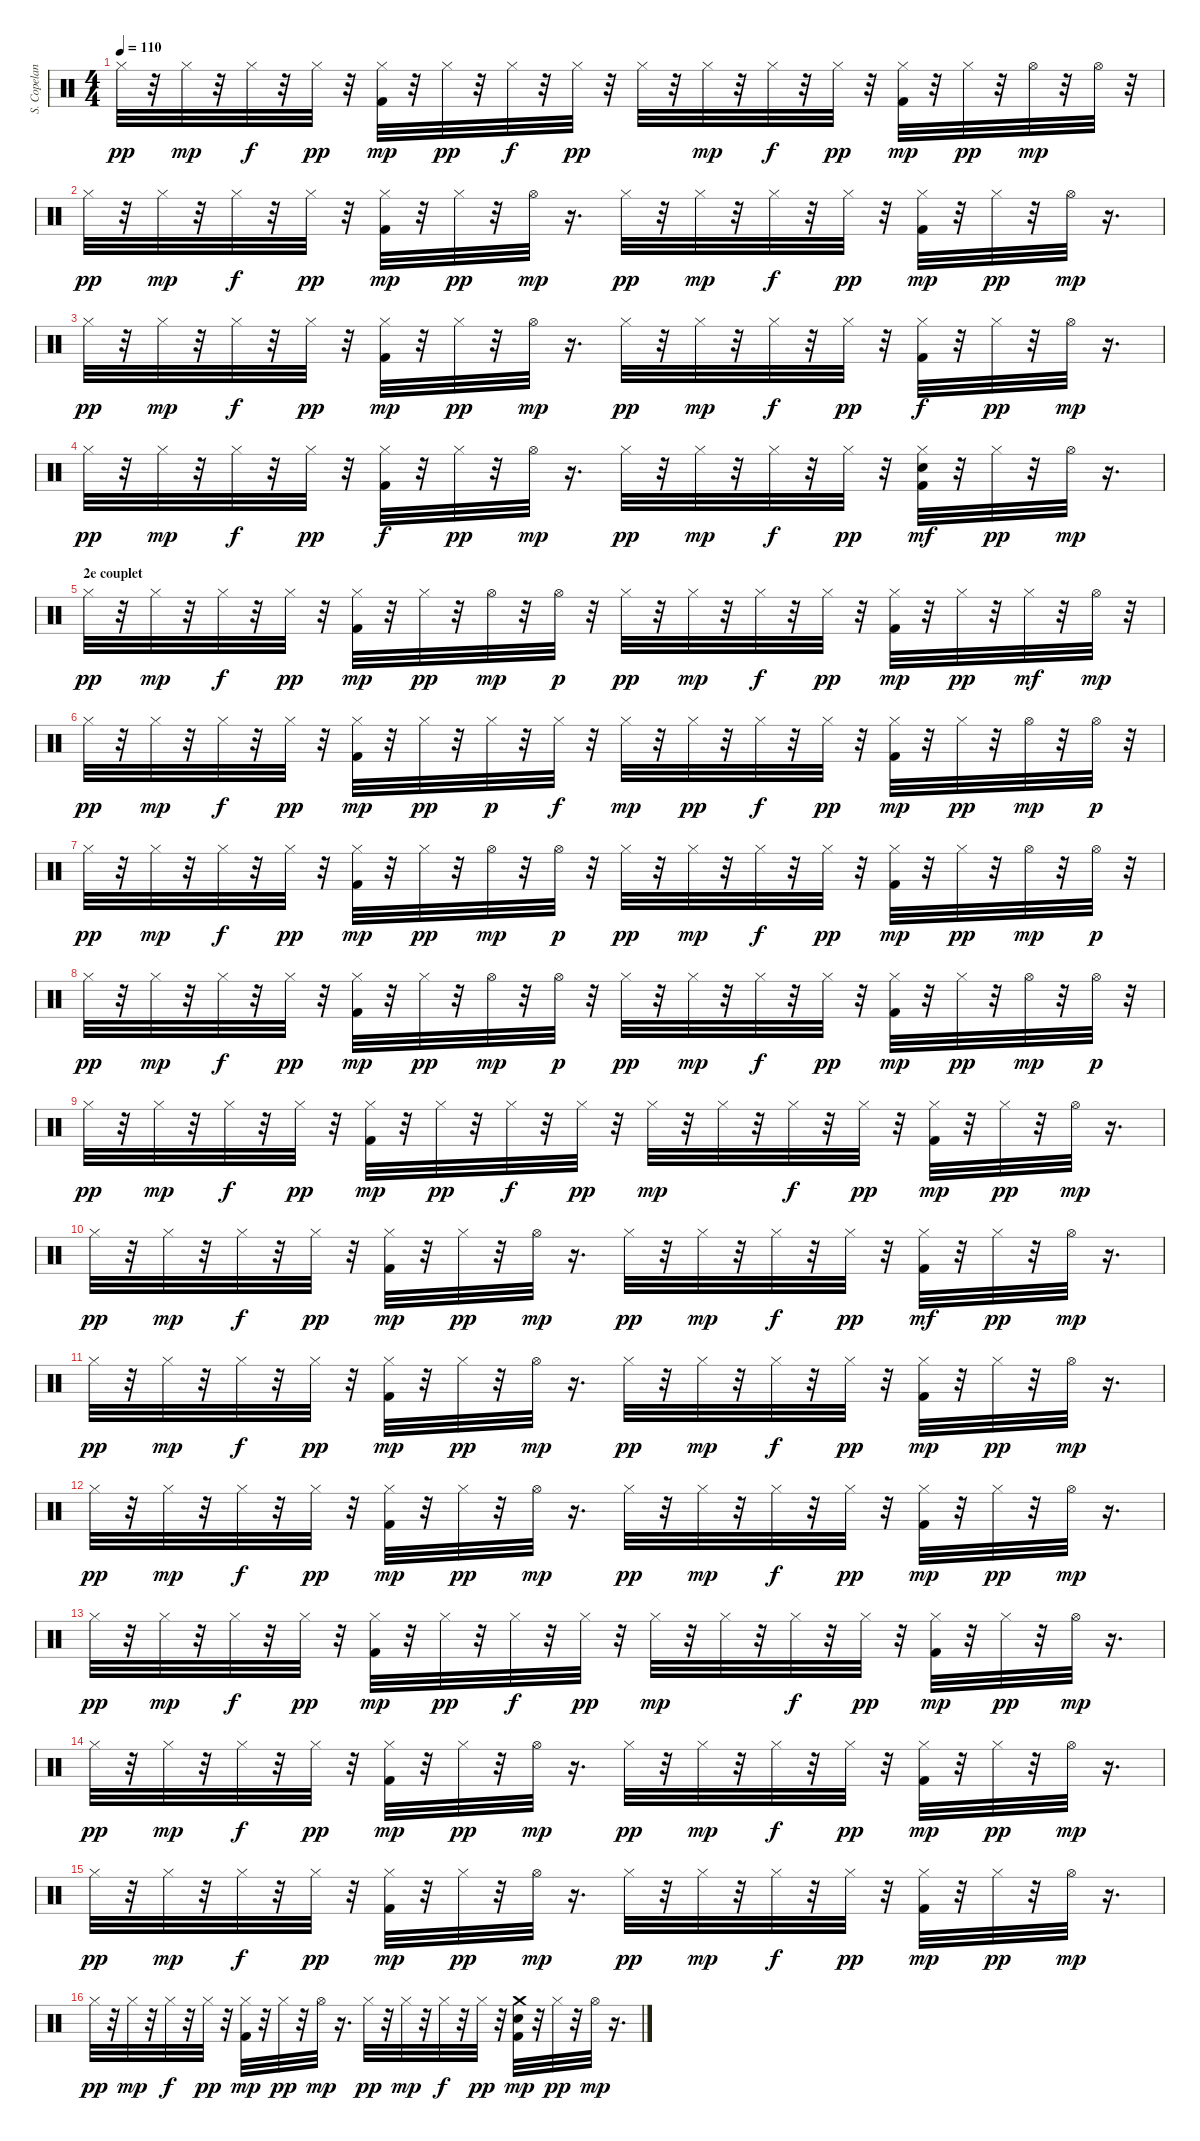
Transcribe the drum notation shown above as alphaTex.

\track ("S. Copeland" "S. Copelan") {instrument percussion}
\staff {score}
\articulation defaults
\ts (4 4)
\tempo 110
\clef neutral
\ks c "Hi-Hat (closed)".32{dy pp}
r.32 "Hi-Hat (closed)".32{dy mp} r.32 "Hi-Hat (closed)".32{dy f} r.32 "Hi-Hat (closed)".32{dy pp} r.32 ("Kick (hit) 2" "Hi-Hat (closed)").32{dy mp} r.32 "Hi-Hat (closed)".32{dy pp} r.32 "Hi-Hat (closed)".32{dy f} r.32 "Hi-Hat (closed)".32{dy pp} r.32 "Hi-Hat (closed)".32 r.32 "Hi-Hat (closed)".32{dy mp} r.32 "Hi-Hat (closed)".32{dy f} r.32 "Hi-Hat (closed)".32{dy pp} r.32 ("Kick (hit) 2" "Hi-Hat (closed)").32{dy mp} r.32 "Hi-Hat (closed)".32{dy pp} r.32 "Hi-Hat (open)".32{dy mp} r.32 "Hi-Hat (open)".32 r.32 |
"Hi-Hat (closed)".32{dy pp} r.32 "Hi-Hat (closed)".32{dy mp} r.32 "Hi-Hat (closed)".32{dy f} r.32 "Hi-Hat (closed)".32{dy pp} r.32 ("Kick (hit) 2" "Hi-Hat (closed)").32{dy mp} r.32 "Hi-Hat (closed)".32{dy pp} r.32 "Hi-Hat (open)".32{dy mp} r.16{d} "Hi-Hat (closed)".32{dy pp} r.32 "Hi-Hat (closed)".32{dy mp} r.32 "Hi-Hat (closed)".32{dy f} r.32 "Hi-Hat (closed)".32{dy pp} r.32 ("Kick (hit) 2" "Hi-Hat (closed)").32{dy mp} r.32 "Hi-Hat (closed)".32{dy pp} r.32 "Hi-Hat (open)".32{dy mp} r.16{d} |
"Hi-Hat (closed)".32{dy pp} r.32 "Hi-Hat (closed)".32{dy mp} r.32 "Hi-Hat (closed)".32{dy f} r.32 "Hi-Hat (closed)".32{dy pp} r.32 ("Kick (hit) 2" "Hi-Hat (closed)").32{dy mp} r.32 "Hi-Hat (closed)".32{dy pp} r.32 "Hi-Hat (open)".32{dy mp} r.16{d} "Hi-Hat (closed)".32{dy pp} r.32 "Hi-Hat (closed)".32{dy mp} r.32 "Hi-Hat (closed)".32{dy f} r.32 "Hi-Hat (closed)".32{dy pp} r.32 ("Kick (hit) 2" "Hi-Hat (closed)").32{dy f} r.32 "Hi-Hat (closed)".32{dy pp} r.32 "Hi-Hat (open)".32{dy mp} r.16{d} |
"Hi-Hat (closed)".32{dy pp} r.32 "Hi-Hat (closed)".32{dy mp} r.32 "Hi-Hat (closed)".32{dy f} r.32 "Hi-Hat (closed)".32{dy pp} r.32 ("Kick (hit) 2" "Hi-Hat (closed)").32{dy f} r.32 "Hi-Hat (closed)".32{dy pp} r.32 "Hi-Hat (open)".32{dy mp} r.16{d} "Hi-Hat (closed)".32{dy pp} r.32 "Hi-Hat (closed)".32{dy mp} r.32 "Hi-Hat (closed)".32{dy f} r.32 "Hi-Hat (closed)".32{dy pp} r.32 ("Kick (hit) 2" "Electric Snare (hit)" "Hi-Hat (closed)").32{dy mf} r.32 "Hi-Hat (closed)".32{dy pp} r.32 "Hi-Hat (open)".32{dy mp} r.16{d} |
\section ("" "2e couplet")
"Hi-Hat (closed)".32{dy pp} r.32 "Hi-Hat (closed)".32{dy mp} r.32 "Hi-Hat (closed)".32{dy f} r.32 "Hi-Hat (closed)".32{dy pp} r.32 ("Kick (hit) 2" "Hi-Hat (closed)").32{dy mp} r.32 "Hi-Hat (closed)".32{dy pp} r.32 "Hi-Hat (open)".32{dy mp} r.32 "Hi-Hat (open)".32{dy p} r.32 "Hi-Hat (closed)".32{dy pp} r.32 "Hi-Hat (closed)".32{dy mp} r.32 "Hi-Hat (closed)".32{dy f} r.32 "Hi-Hat (closed)".32{dy pp} r.32 ("Kick (hit) 2" "Hi-Hat (closed)").32{dy mp} r.32 "Hi-Hat (closed)".32{dy pp} r.32 "Hi-Hat (closed)".32{dy mf} r.32 "Hi-Hat (open)".32{dy mp} r.32 |
"Hi-Hat (closed)".32{dy pp} r.32 "Hi-Hat (closed)".32{dy mp} r.32 "Hi-Hat (closed)".32{dy f} r.32 "Hi-Hat (closed)".32{dy pp} r.32 ("Kick (hit) 2" "Hi-Hat (closed)").32{dy mp} r.32 "Hi-Hat (closed)".32{dy pp} r.32 "Hi-Hat (closed)".32{dy p} r.32 "Hi-Hat (closed)".32{dy f} r.32 "Hi-Hat (closed)".32{dy mp} r.32 "Hi-Hat (closed)".32{dy pp} r.32 "Hi-Hat (closed)".32{dy f} r.32 "Hi-Hat (closed)".32{dy pp} r.32 ("Kick (hit) 2" "Hi-Hat (closed)").32{dy mp} r.32 "Hi-Hat (closed)".32{dy pp} r.32 "Hi-Hat (open)".32{dy mp} r.32 "Hi-Hat (open)".32{dy p} r.32 |
"Hi-Hat (closed)".32{dy pp} r.32 "Hi-Hat (closed)".32{dy mp} r.32 "Hi-Hat (closed)".32{dy f} r.32 "Hi-Hat (closed)".32{dy pp} r.32 ("Kick (hit) 2" "Hi-Hat (closed)").32{dy mp} r.32 "Hi-Hat (closed)".32{dy pp} r.32 "Hi-Hat (open)".32{dy mp} r.32 "Hi-Hat (open)".32{dy p} r.32 "Hi-Hat (closed)".32{dy pp} r.32 "Hi-Hat (closed)".32{dy mp} r.32 "Hi-Hat (closed)".32{dy f} r.32 "Hi-Hat (closed)".32{dy pp} r.32 ("Kick (hit) 2" "Hi-Hat (closed)").32{dy mp} r.32 "Hi-Hat (closed)".32{dy pp} r.32 "Hi-Hat (open)".32{dy mp} r.32 "Hi-Hat (open)".32{dy p} r.32 |
"Hi-Hat (closed)".32{dy pp} r.32 "Hi-Hat (closed)".32{dy mp} r.32 "Hi-Hat (closed)".32{dy f} r.32 "Hi-Hat (closed)".32{dy pp} r.32 ("Kick (hit) 2" "Hi-Hat (closed)").32{dy mp} r.32 "Hi-Hat (closed)".32{dy pp} r.32 "Hi-Hat (open)".32{dy mp} r.32 "Hi-Hat (open)".32{dy p} r.32 "Hi-Hat (closed)".32{dy pp} r.32 "Hi-Hat (closed)".32{dy mp} r.32 "Hi-Hat (closed)".32{dy f} r.32 "Hi-Hat (closed)".32{dy pp} r.32 ("Kick (hit) 2" "Hi-Hat (closed)").32{dy mp} r.32 "Hi-Hat (closed)".32{dy pp} r.32 "Hi-Hat (open)".32{dy mp} r.32 "Hi-Hat (open)".32{dy p} r.32 |
"Hi-Hat (closed)".32{dy pp} r.32 "Hi-Hat (closed)".32{dy mp} r.32 "Hi-Hat (closed)".32{dy f} r.32 "Hi-Hat (closed)".32{dy pp} r.32 ("Kick (hit) 2" "Hi-Hat (closed)").32{dy mp} r.32 "Hi-Hat (closed)".32{dy pp} r.32 "Hi-Hat (closed)".32{dy f} r.32 "Hi-Hat (closed)".32{dy pp} r.32 "Hi-Hat (closed)".32{dy mp} r.32 "Hi-Hat (closed)".32 r.32 "Hi-Hat (closed)".32{dy f} r.32 "Hi-Hat (closed)".32{dy pp} r.32 ("Kick (hit) 2" "Hi-Hat (closed)").32{dy mp} r.32 "Hi-Hat (closed)".32{dy pp} r.32 "Hi-Hat (open)".32{dy mp} r.16{d} |
"Hi-Hat (closed)".32{dy pp} r.32 "Hi-Hat (closed)".32{dy mp} r.32 "Hi-Hat (closed)".32{dy f} r.32 "Hi-Hat (closed)".32{dy pp} r.32 ("Kick (hit) 2" "Hi-Hat (closed)").32{dy mp} r.32 "Hi-Hat (closed)".32{dy pp} r.32 "Hi-Hat (open)".32{dy mp} r.16{d} "Hi-Hat (closed)".32{dy pp} r.32 "Hi-Hat (closed)".32{dy mp} r.32 "Hi-Hat (closed)".32{dy f} r.32 "Hi-Hat (closed)".32{dy pp} r.32 ("Kick (hit) 2" "Hi-Hat (closed)").32{dy mf} r.32 "Hi-Hat (closed)".32{dy pp} r.32 "Hi-Hat (open)".32{dy mp} r.16{d} |
"Hi-Hat (closed)".32{dy pp} r.32 "Hi-Hat (closed)".32{dy mp} r.32 "Hi-Hat (closed)".32{dy f} r.32 "Hi-Hat (closed)".32{dy pp} r.32 ("Kick (hit) 2" "Hi-Hat (closed)").32{dy mp} r.32 "Hi-Hat (closed)".32{dy pp} r.32 "Hi-Hat (open)".32{dy mp} r.16{d} "Hi-Hat (closed)".32{dy pp} r.32 "Hi-Hat (closed)".32{dy mp} r.32 "Hi-Hat (closed)".32{dy f} r.32 "Hi-Hat (closed)".32{dy pp} r.32 ("Kick (hit) 2" "Hi-Hat (closed)").32{dy mp} r.32 "Hi-Hat (closed)".32{dy pp} r.32 "Hi-Hat (open)".32{dy mp} r.16{d} |
"Hi-Hat (closed)".32{dy pp} r.32 "Hi-Hat (closed)".32{dy mp} r.32 "Hi-Hat (closed)".32{dy f} r.32 "Hi-Hat (closed)".32{dy pp} r.32 ("Kick (hit) 2" "Hi-Hat (closed)").32{dy mp} r.32 "Hi-Hat (closed)".32{dy pp} r.32 "Hi-Hat (open)".32{dy mp} r.16{d} "Hi-Hat (closed)".32{dy pp} r.32 "Hi-Hat (closed)".32{dy mp} r.32 "Hi-Hat (closed)".32{dy f} r.32 "Hi-Hat (closed)".32{dy pp} r.32 ("Kick (hit) 2" "Hi-Hat (closed)").32{dy mp} r.32 "Hi-Hat (closed)".32{dy pp} r.32 "Hi-Hat (open)".32{dy mp} r.16{d} |
"Hi-Hat (closed)".32{dy pp} r.32 "Hi-Hat (closed)".32{dy mp} r.32 "Hi-Hat (closed)".32{dy f} r.32 "Hi-Hat (closed)".32{dy pp} r.32 ("Kick (hit) 2" "Hi-Hat (closed)").32{dy mp} r.32 "Hi-Hat (closed)".32{dy pp} r.32 "Hi-Hat (closed)".32{dy f} r.32 "Hi-Hat (closed)".32{dy pp} r.32 "Hi-Hat (closed)".32{dy mp} r.32 "Hi-Hat (closed)".32 r.32 "Hi-Hat (closed)".32{dy f} r.32 "Hi-Hat (closed)".32{dy pp} r.32 ("Kick (hit) 2" "Hi-Hat (closed)").32{dy mp} r.32 "Hi-Hat (closed)".32{dy pp} r.32 "Hi-Hat (open)".32{dy mp} r.16{d} |
"Hi-Hat (closed)".32{dy pp} r.32 "Hi-Hat (closed)".32{dy mp} r.32 "Hi-Hat (closed)".32{dy f} r.32 "Hi-Hat (closed)".32{dy pp} r.32 ("Kick (hit) 2" "Hi-Hat (closed)").32{dy mp} r.32 "Hi-Hat (closed)".32{dy pp} r.32 "Hi-Hat (open)".32{dy mp} r.16{d} "Hi-Hat (closed)".32{dy pp} r.32 "Hi-Hat (closed)".32{dy mp} r.32 "Hi-Hat (closed)".32{dy f} r.32 "Hi-Hat (closed)".32{dy pp} r.32 ("Kick (hit) 2" "Hi-Hat (closed)").32{dy mp} r.32 "Hi-Hat (closed)".32{dy pp} r.32 "Hi-Hat (open)".32{dy mp} r.16{d} |
"Hi-Hat (closed)".32{dy pp} r.32 "Hi-Hat (closed)".32{dy mp} r.32 "Hi-Hat (closed)".32{dy f} r.32 "Hi-Hat (closed)".32{dy pp} r.32 ("Kick (hit) 2" "Hi-Hat (closed)").32{dy mp} r.32 "Hi-Hat (closed)".32{dy pp} r.32 "Hi-Hat (open)".32{dy mp} r.16{d} "Hi-Hat (closed)".32{dy pp} r.32 "Hi-Hat (closed)".32{dy mp} r.32 "Hi-Hat (closed)".32{dy f} r.32 "Hi-Hat (closed)".32{dy pp} r.32 ("Kick (hit) 2" "Hi-Hat (closed)").32{dy mp} r.32 "Hi-Hat (closed)".32{dy pp} r.32 "Hi-Hat (open)".32{dy mp} r.16{d} |
"Hi-Hat (closed)".32{dy pp} r.32 "Hi-Hat (closed)".32{dy mp} r.32 "Hi-Hat (closed)".32{dy f} r.32 "Hi-Hat (closed)".32{dy pp} r.32 ("Kick (hit) 2" "Hi-Hat (closed)").32{dy mp} r.32 "Hi-Hat (closed)".32{dy pp} r.32 "Hi-Hat (open)".32{dy mp} r.16{d} "Hi-Hat (closed)".32{dy pp} r.32 "Hi-Hat (closed)".32{dy mp} r.32 "Hi-Hat (closed)".32{dy f} r.32 "Hi-Hat (closed)".32{dy pp} r.32 ("Kick (hit) 2" "Electric Snare (hit)" "Crash medium (hit)").32{dy mp} r.32 "Hi-Hat (closed)".32{dy pp} r.32 "Hi-Hat (open)".32{dy mp} r.16{d}
